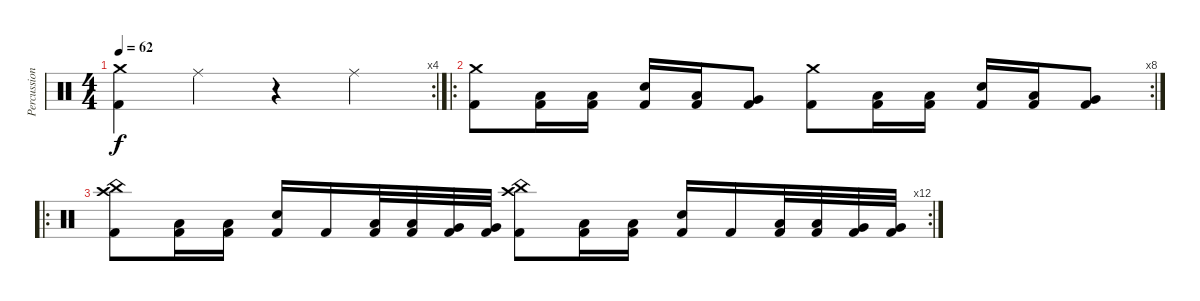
\track ("Percussion" "Percussion") {instrument percussion}
\staff {score}
\articulation defaults
\rc 4
\ts (4 4)
\tempo 62
\clef neutral
\ks c
("Crash medium (hit)" "Kick (hit) 2").4{dy f} "Ride (middle)".4 r.4 "Ride (middle)".4 |
\ro
\rc 8
("Crash medium (hit)" "Kick (hit) 2").8 ("Low Tom (hit)" "Kick (hit) 2").16 ("Low Tom (hit)" "Kick (hit) 2").16 ("Electric Snare (hit)" "Kick (hit) 2").16 ("Low Tom (hit)" "Kick (hit) 2").16 ("Very Low Tom (hit)" "Kick (hit) 2").8 ("Crash medium (hit)" "Kick (hit) 2").8 ("Low Tom (hit)" "Kick (hit) 2").16 ("Low Tom (hit)" "Kick (hit) 2").16 ("Electric Snare (hit)" "Kick (hit) 2").16 ("Low Tom (hit)" "Kick (hit) 2").16 ("Very Low Tom (hit)" "Kick (hit) 2").8 |
\ro
\rc 12
("Crash high (hit)" "China (hit)" "Kick (hit) 2").8 ("Low Tom (hit)" "Kick (hit) 2").16 ("Low Tom (hit)" "Kick (hit) 2").16 ("Electric Snare (hit)" "Kick (hit) 2").16 "Kick (hit) 2".16 ("Low Tom (hit)" "Kick (hit) 2").32 ("Low Tom (hit)" "Kick (hit) 2").32 ("Very Low Tom (hit)" "Kick (hit) 2").32 ("Very Low Tom (hit)" "Kick (hit) 2").32 ("Crash high (hit)" "China (hit)" "Kick (hit) 2").8 ("Low Tom (hit)" "Kick (hit) 2").16 ("Low Tom (hit)" "Kick (hit) 2").16 ("Electric Snare (hit)" "Kick (hit) 2").16 "Kick (hit) 2".16 ("Low Tom (hit)" "Kick (hit) 2").32 ("Low Tom (hit)" "Kick (hit) 2").32 ("Very Low Tom (hit)" "Kick (hit) 2").32 ("Very Low Tom (hit)" "Kick (hit) 2").32
